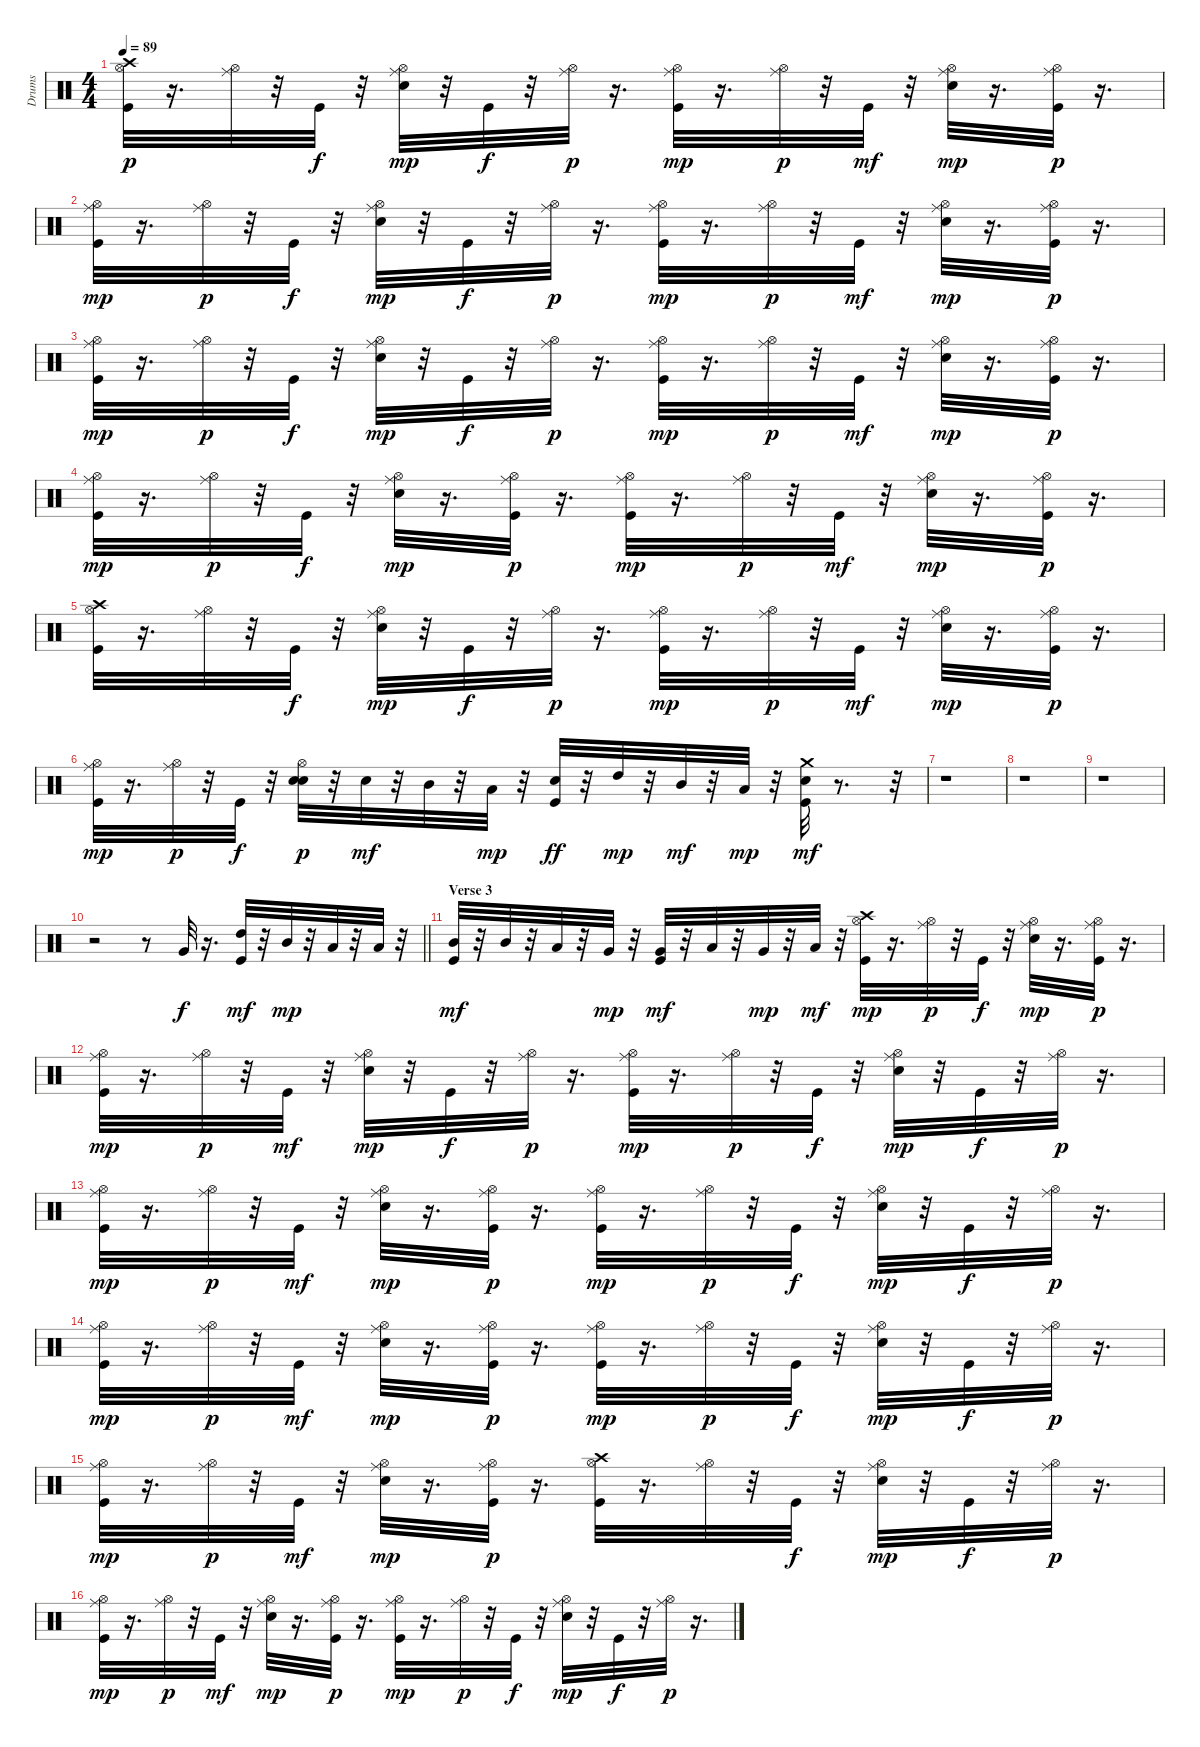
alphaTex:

\track ("Drums   " "Drums   ") {instrument percussion}
\staff {score}
\articulation defaults
\ts (4 4)
\tempo 89
\clef neutral
\ks c
("Kick (hit)" "Hi-Hat (open)" "Crash high (hit)").32{dy p} r.16{d} ("Hi-Hat (open)" "Ride (middle)").32 r.32 "Kick (hit)".32{dy f} r.32 ("Electric Snare (hit)" "Hi-Hat (open)" "Ride (middle)").32{dy mp} r.32 "Kick (hit)".32{dy f} r.32 ("Hi-Hat (open)" "Ride (middle)").32{dy p} r.16{d} ("Kick (hit)" "Hi-Hat (open)" "Ride (middle)").32{dy mp} r.16{d} ("Hi-Hat (open)" "Ride (middle)").32{dy p} r.32 "Kick (hit)".32{dy mf} r.32 ("Electric Snare (hit)" "Hi-Hat (open)" "Ride (middle)").32{dy mp} r.16{d} ("Kick (hit)" "Hi-Hat (open)" "Ride (middle)").32{dy p} r.16{d} |
("Kick (hit)" "Hi-Hat (open)" "Ride (middle)").32{dy mp} r.16{d} ("Hi-Hat (open)" "Ride (middle)").32{dy p} r.32 "Kick (hit)".32{dy f} r.32 ("Electric Snare (hit)" "Hi-Hat (open)" "Ride (middle)").32{dy mp} r.32 "Kick (hit)".32{dy f} r.32 ("Hi-Hat (open)" "Ride (middle)").32{dy p} r.16{d} ("Kick (hit)" "Hi-Hat (open)" "Ride (middle)").32{dy mp} r.16{d} ("Hi-Hat (open)" "Ride (middle)").32{dy p} r.32 "Kick (hit)".32{dy mf} r.32 ("Electric Snare (hit)" "Hi-Hat (open)" "Ride (middle)").32{dy mp} r.16{d} ("Kick (hit)" "Hi-Hat (open)" "Ride (middle)").32{dy p} r.16{d} |
("Kick (hit)" "Hi-Hat (open)" "Ride (middle)").32{dy mp} r.16{d} ("Hi-Hat (open)" "Ride (middle)").32{dy p} r.32 "Kick (hit)".32{dy f} r.32 ("Electric Snare (hit)" "Hi-Hat (open)" "Ride (middle)").32{dy mp} r.32 "Kick (hit)".32{dy f} r.32 ("Hi-Hat (open)" "Ride (middle)").32{dy p} r.16{d} ("Kick (hit)" "Hi-Hat (open)" "Ride (middle)").32{dy mp} r.16{d} ("Hi-Hat (open)" "Ride (middle)").32{dy p} r.32 "Kick (hit)".32{dy mf} r.32 ("Electric Snare (hit)" "Hi-Hat (open)" "Ride (middle)").32{dy mp} r.16{d} ("Kick (hit)" "Hi-Hat (open)" "Ride (middle)").32{dy p} r.16{d} |
("Kick (hit)" "Hi-Hat (open)" "Ride (middle)").32{dy mp} r.16{d} ("Hi-Hat (open)" "Ride (middle)").32{dy p} r.32 "Kick (hit)".32{dy f} r.32 ("Electric Snare (hit)" "Hi-Hat (open)" "Ride (middle)").32{dy mp} r.16{d} ("Kick (hit)" "Hi-Hat (open)" "Ride (middle)").32{dy p} r.16{d} ("Kick (hit)" "Hi-Hat (open)" "Ride (middle)").32{dy mp} r.16{d} ("Hi-Hat (open)" "Ride (middle)").32{dy p} r.32 "Kick (hit)".32{dy mf} r.32 ("Electric Snare (hit)" "Hi-Hat (open)" "Ride (middle)").32{dy mp} r.16{d} ("Kick (hit)" "Hi-Hat (open)" "Ride (middle)").32{dy p} r.16{d} |
("Kick (hit)" "Hi-Hat (open)" "Crash high (hit)").32 r.16{d} ("Hi-Hat (open)" "Ride (middle)").32 r.32 "Kick (hit)".32{dy f} r.32 ("Electric Snare (hit)" "Hi-Hat (open)" "Ride (middle)").32{dy mp} r.32 "Kick (hit)".32{dy f} r.32 ("Hi-Hat (open)" "Ride (middle)").32{dy p} r.16{d} ("Kick (hit)" "Hi-Hat (open)" "Ride (middle)").32{dy mp} r.16{d} ("Hi-Hat (open)" "Ride (middle)").32{dy p} r.32 "Kick (hit)".32{dy mf} r.32 ("Electric Snare (hit)" "Hi-Hat (open)" "Ride (middle)").32{dy mp} r.16{d} ("Kick (hit)" "Hi-Hat (open)" "Ride (middle)").32{dy p} r.16{d} |
("Kick (hit)" "Hi-Hat (open)" "Ride (middle)").32{dy mp} r.16{d} ("Hi-Hat (open)" "Ride (middle)").32{dy p} r.32 "Kick (hit)".32{dy f} r.32 ("Electric Snare (hit)" "Electric Snare (hit)" "Hi-Hat (open)").32{dy p} r.32 "Electric Snare (hit)".32{dy mf} r.32 "Mid Tom (hit)".32 r.32 "Low Tom (hit)".32{dy mp} r.32 ("Kick (hit)" "Electric Snare (hit)").32{dy ff} r.32 "High Tom (hit)".32{dy mp} r.32 "Mid Tom (hit)".32{dy mf} r.32 "Low Tom (hit)".32{dy mp} r.32 ("Kick (hit)" "Electric Snare (hit)" "Crash medium (hit)").32{dy mf} r.8{d} r.32 |
r.1 |
r.1 |
r.1 |
\barLineRight lightlight
r.2 r.8 "Very Low Tom (hit)".32{dy f} r.16{d} ("Kick (hit)" "High Tom (hit)").32{dy mf} r.32 "Mid Tom (hit)".32{dy mp} r.32 "Low Tom (hit)".32 r.32 "Low Tom (hit)".32 r.32 |
\section ("" "Verse 3")
("Kick (hit)" "Mid Tom (hit)").32{dy mf} r.32 "Mid Tom (hit)".32 r.32 "Low Tom (hit)".32 r.32 "Very Low Tom (hit)".32{dy mp} r.32 ("Kick (hit)" "Very Low Tom (hit)").32{dy mf} r.32 "Low Tom (hit)".32 r.32 "Very Low Tom (hit)".32{dy mp} r.32 "Low Floor Tom (hit)".32{dy mf} r.32 ("Kick (hit)" "Hi-Hat (open)" "Crash high (hit)").32{dy mp} r.16{d} ("Hi-Hat (open)" "Ride (middle)").32{dy p} r.32 "Kick (hit)".32{dy f} r.32 ("Electric Snare (hit)" "Hi-Hat (open)" "Ride (middle)").32{dy mp} r.16{d} ("Kick (hit)" "Hi-Hat (open)" "Ride (middle)").32{dy p} r.16{d} |
("Kick (hit)" "Hi-Hat (open)" "Ride (middle)").32{dy mp} r.16{d} ("Hi-Hat (open)" "Ride (middle)").32{dy p} r.32 "Kick (hit)".32{dy mf} r.32 ("Electric Snare (hit)" "Hi-Hat (open)" "Ride (middle)").32{dy mp} r.32 "Kick (hit)".32{dy f} r.32 ("Hi-Hat (open)" "Ride (middle)").32{dy p} r.16{d} ("Kick (hit)" "Hi-Hat (open)" "Ride (middle)").32{dy mp} r.16{d} ("Hi-Hat (open)" "Ride (middle)").32{dy p} r.32 "Kick (hit)".32{dy f} r.32 ("Electric Snare (hit)" "Hi-Hat (open)" "Ride (middle)").32{dy mp} r.32 "Kick (hit)".32{dy f} r.32 ("Hi-Hat (open)" "Ride (middle)").32{dy p} r.16{d} |
("Kick (hit)" "Hi-Hat (open)" "Ride (middle)").32{dy mp} r.16{d} ("Hi-Hat (open)" "Ride (middle)").32{dy p} r.32 "Kick (hit)".32{dy mf} r.32 ("Electric Snare (hit)" "Hi-Hat (open)" "Ride (middle)").32{dy mp} r.16{d} ("Kick (hit)" "Hi-Hat (open)" "Ride (middle)").32{dy p} r.16{d} ("Kick (hit)" "Hi-Hat (open)" "Ride (middle)").32{dy mp} r.16{d} ("Hi-Hat (open)" "Ride (middle)").32{dy p} r.32 "Kick (hit)".32{dy f} r.32 ("Electric Snare (hit)" "Hi-Hat (open)" "Ride (middle)").32{dy mp} r.32 "Kick (hit)".32{dy f} r.32 ("Hi-Hat (open)" "Ride (middle)").32{dy p} r.16{d} |
("Kick (hit)" "Hi-Hat (open)" "Ride (middle)").32{dy mp} r.16{d} ("Hi-Hat (open)" "Ride (middle)").32{dy p} r.32 "Kick (hit)".32{dy mf} r.32 ("Electric Snare (hit)" "Hi-Hat (open)" "Ride (middle)").32{dy mp} r.16{d} ("Kick (hit)" "Hi-Hat (open)" "Ride (middle)").32{dy p} r.16{d} ("Kick (hit)" "Hi-Hat (open)" "Ride (middle)").32{dy mp} r.16{d} ("Hi-Hat (open)" "Ride (middle)").32{dy p} r.32 "Kick (hit)".32{dy f} r.32 ("Electric Snare (hit)" "Hi-Hat (open)" "Ride (middle)").32{dy mp} r.32 "Kick (hit)".32{dy f} r.32 ("Hi-Hat (open)" "Ride (middle)").32{dy p} r.16{d} |
("Kick (hit)" "Hi-Hat (open)" "Ride (middle)").32{dy mp} r.16{d} ("Hi-Hat (open)" "Ride (middle)").32{dy p} r.32 "Kick (hit)".32{dy mf} r.32 ("Electric Snare (hit)" "Hi-Hat (open)" "Ride (middle)").32{dy mp} r.16{d} ("Kick (hit)" "Hi-Hat (open)" "Ride (middle)").32{dy p} r.16{d} ("Kick (hit)" "Hi-Hat (open)" "Crash high (hit)").32 r.16{d} ("Hi-Hat (open)" "Ride (middle)").32 r.32 "Kick (hit)".32{dy f} r.32 ("Electric Snare (hit)" "Hi-Hat (open)" "Ride (middle)").32{dy mp} r.32 "Kick (hit)".32{dy f} r.32 ("Hi-Hat (open)" "Ride (middle)").32{dy p} r.16{d} |
("Kick (hit)" "Hi-Hat (open)" "Ride (middle)").32{dy mp} r.16{d} ("Hi-Hat (open)" "Ride (middle)").32{dy p} r.32 "Kick (hit)".32{dy mf} r.32 ("Electric Snare (hit)" "Hi-Hat (open)" "Ride (middle)").32{dy mp} r.16{d} ("Kick (hit)" "Hi-Hat (open)" "Ride (middle)").32{dy p} r.16{d} ("Kick (hit)" "Hi-Hat (open)" "Ride (middle)").32{dy mp} r.16{d} ("Hi-Hat (open)" "Ride (middle)").32{dy p} r.32 "Kick (hit)".32{dy f} r.32 ("Electric Snare (hit)" "Hi-Hat (open)" "Ride (middle)").32{dy mp} r.32 "Kick (hit)".32{dy f} r.32 ("Hi-Hat (open)" "Ride (middle)").32{dy p} r.16{d}
